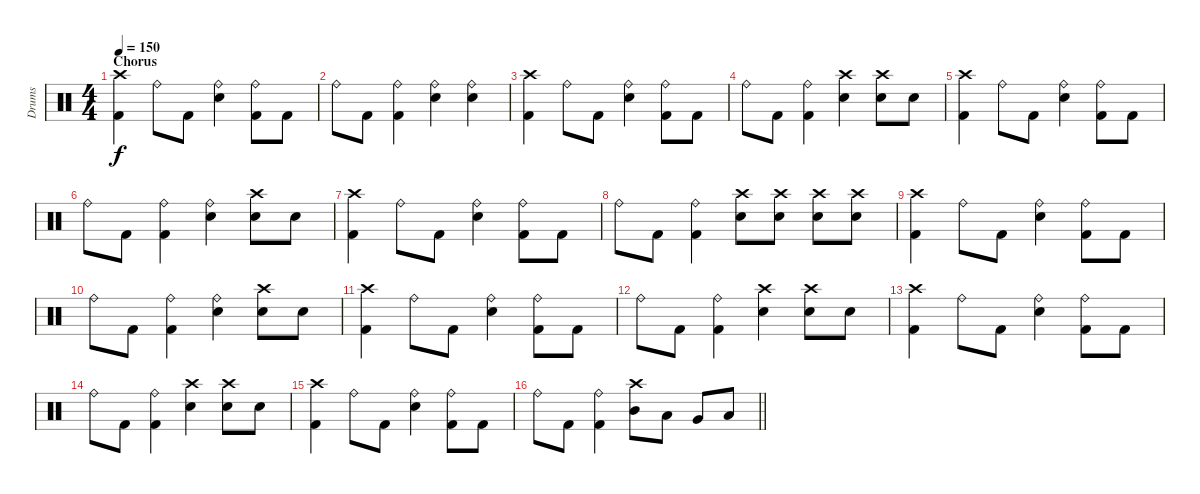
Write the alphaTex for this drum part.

\track ("Drums" "Drums") {instrument percussion}
\staff {score}
\articulation defaults
\ts (4 4)
\section ("" "Chorus")
\tempo 150
\clef neutral
\ks c
("Crash high (hit)" "Kick (hit) 2").4{dy f} "Ride (bell)".8 "Kick (hit) 2".8 ("Ride (bell)" "Electric Snare (hit)").4 ("Ride (bell)" "Kick (hit) 2").8 "Kick (hit) 2".8 |
"Ride (bell)".8 "Kick (hit) 2".8 ("Ride (bell)" "Kick (hit) 2").4 ("Ride (bell)" "Electric Snare (hit)").4 ("Ride (bell)" "Electric Snare (hit)").4 |
("Crash high (hit)" "Kick (hit) 2").4 "Ride (bell)".8 "Kick (hit) 2".8 ("Ride (bell)" "Electric Snare (hit)").4 ("Ride (bell)" "Kick (hit) 2").8 "Kick (hit) 2".8 |
"Ride (bell)".8 "Kick (hit) 2".8 ("Ride (bell)" "Kick (hit) 2").4 ("Crash high (hit)" "Electric Snare (hit)").4 ("Crash high (hit)" "Electric Snare (hit)").8 "Electric Snare (hit)".8 |
("Crash high (hit)" "Kick (hit) 2").4 "Ride (bell)".8 "Kick (hit) 2".8 ("Ride (bell)" "Electric Snare (hit)").4 ("Ride (bell)" "Kick (hit) 2").8 "Kick (hit) 2".8 |
"Ride (bell)".8 "Kick (hit) 2".8 ("Ride (bell)" "Kick (hit) 2").4 ("Ride (bell)" "Electric Snare (hit)").4 ("Crash high (hit)" "Electric Snare (hit)").8 "Electric Snare (hit)".8 |
("Crash high (hit)" "Kick (hit) 2").4 "Ride (bell)".8 "Kick (hit) 2".8 ("Ride (bell)" "Electric Snare (hit)").4 ("Ride (bell)" "Kick (hit) 2").8 "Kick (hit) 2".8 |
"Ride (bell)".8 "Kick (hit) 2".8 ("Ride (bell)" "Kick (hit) 2").4 ("Crash high (hit)" "Electric Snare (hit)").8 ("Crash high (hit)" "Electric Snare (hit)").8 ("Crash high (hit)" "Electric Snare (hit)").8 ("Crash high (hit)" "Electric Snare (hit)").8 |
("Crash high (hit)" "Kick (hit) 2").4 "Ride (bell)".8 "Kick (hit) 2".8 ("Ride (bell)" "Electric Snare (hit)").4 ("Ride (bell)" "Kick (hit) 2").8 "Kick (hit) 2".8 |
"Ride (bell)".8 "Kick (hit) 2".8 ("Ride (bell)" "Kick (hit) 2").4 ("Ride (bell)" "Electric Snare (hit)").4 ("Crash high (hit)" "Electric Snare (hit)").8 "Electric Snare (hit)".8 |
("Crash high (hit)" "Kick (hit) 2").4 "Ride (bell)".8 "Kick (hit) 2".8 ("Ride (bell)" "Electric Snare (hit)").4 ("Ride (bell)" "Kick (hit) 2").8 "Kick (hit) 2".8 |
"Ride (bell)".8 "Kick (hit) 2".8 ("Ride (bell)" "Kick (hit) 2").4 ("Crash high (hit)" "Electric Snare (hit)").4 ("Crash high (hit)" "Electric Snare (hit)").8 "Electric Snare (hit)".8 |
("Crash high (hit)" "Kick (hit) 2").4 "Ride (bell)".8 "Kick (hit) 2".8 ("Ride (bell)" "Electric Snare (hit)").4 ("Ride (bell)" "Kick (hit) 2").8 "Kick (hit) 2".8 |
"Ride (bell)".8 "Kick (hit) 2".8 ("Ride (bell)" "Kick (hit) 2").4 ("Crash high (hit)" "Electric Snare (hit)").4 ("Crash high (hit)" "Electric Snare (hit)").8 "Electric Snare (hit)".8 |
("Crash high (hit)" "Kick (hit) 2").4 "Ride (bell)".8 "Kick (hit) 2".8 ("Ride (bell)" "Electric Snare (hit)").4 ("Ride (bell)" "Kick (hit) 2").8 "Kick (hit) 2".8 |
\barLineRight lightlight "Ride (bell)".8 "Kick (hit) 2".8
("Ride (bell)" "Kick (hit) 2").4 ("Crash high (hit)" "Mid Tom (hit)").8 "Low Tom (hit)".8 "Very Low Tom (hit)".8 "Low Floor Tom (hit)".8
